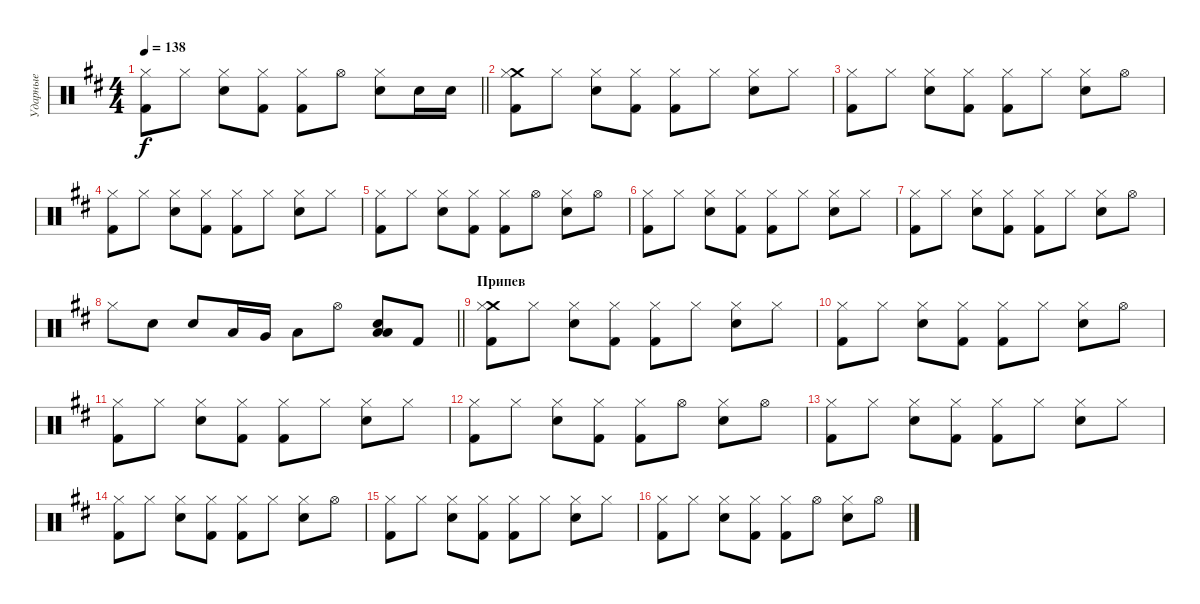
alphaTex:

\track ("Ударные" "Ударные") {instrument percussion}
\staff {score}
\articulation defaults
\ts (4 4)
\tempo 138
\clef neutral
\barLineRight lightlight
\ks bminor
("Kick (hit) 2" "Hi-Hat (closed)").8{dy f} "Hi-Hat (closed)".8 ("Electric Snare (hit)" "Hi-Hat (closed)").8 ("Kick (hit) 2" "Hi-Hat (closed)").8 ("Kick (hit) 2" "Hi-Hat (closed)").8 "Hi-Hat (open)".8 ("Electric Snare (hit)" "Hi-Hat (closed)").8 "Electric Snare (hit)".16 "Electric Snare (hit)".16 |
\section ("" "")
("Crash medium (hit)" "Kick (hit) 2" "Hi-Hat (closed)").8 "Hi-Hat (closed)".8 ("Electric Snare (hit)" "Hi-Hat (closed)").8 ("Kick (hit) 2" "Hi-Hat (closed)").8 ("Kick (hit) 2" "Hi-Hat (closed)").8 "Hi-Hat (closed)".8 ("Electric Snare (hit)" "Hi-Hat (closed)").8 "Hi-Hat (closed)".8 |
("Kick (hit) 2" "Hi-Hat (closed)").8 "Hi-Hat (closed)".8 ("Electric Snare (hit)" "Hi-Hat (closed)").8 ("Kick (hit) 2" "Hi-Hat (closed)").8 ("Kick (hit) 2" "Hi-Hat (closed)").8 "Hi-Hat (closed)".8 ("Electric Snare (hit)" "Hi-Hat (closed)").8 "Hi-Hat (open)".8 |
("Kick (hit) 2" "Hi-Hat (closed)").8 "Hi-Hat (closed)".8 ("Electric Snare (hit)" "Hi-Hat (closed)").8 ("Kick (hit) 2" "Hi-Hat (closed)").8 ("Kick (hit) 2" "Hi-Hat (closed)").8 "Hi-Hat (closed)".8 ("Electric Snare (hit)" "Hi-Hat (closed)").8 "Hi-Hat (closed)".8 |
("Kick (hit) 2" "Hi-Hat (closed)").8 "Hi-Hat (closed)".8 ("Electric Snare (hit)" "Hi-Hat (closed)").8 ("Kick (hit) 2" "Hi-Hat (closed)").8 ("Kick (hit) 2" "Hi-Hat (closed)").8 "Hi-Hat (open)".8 ("Electric Snare (hit)" "Hi-Hat (closed)").8 "Hi-Hat (open)".8 |
("Kick (hit) 2" "Hi-Hat (closed)").8 "Hi-Hat (closed)".8 ("Electric Snare (hit)" "Hi-Hat (closed)").8 ("Kick (hit) 2" "Hi-Hat (closed)").8 ("Kick (hit) 2" "Hi-Hat (closed)").8 "Hi-Hat (closed)".8 ("Electric Snare (hit)" "Hi-Hat (closed)").8 "Hi-Hat (closed)".8 |
("Kick (hit) 2" "Hi-Hat (closed)").8 "Hi-Hat (closed)".8 ("Electric Snare (hit)" "Hi-Hat (closed)").8 ("Kick (hit) 2" "Hi-Hat (closed)").8 ("Kick (hit) 2" "Hi-Hat (closed)").8 "Hi-Hat (closed)".8 ("Electric Snare (hit)" "Hi-Hat (closed)").8 "Hi-Hat (open)".8 |
\barLineRight lightlight "Hi-Hat (closed)".8 "Electric Snare (hit)".8 "Electric Snare (hit)".8 "Low Tom (hit)".16 "Very Low Tom (hit)".16 "Low Floor Tom (hit)".8 "Hi-Hat (open)".8
("Low Floor Tom (hit)" "Electric Snare (hit)" "Low Tom (hit)").8 "Kick (hit) 2".8 |
\section ("" "Припев")
("Crash medium (hit)" "Kick (hit) 2" "Hi-Hat (closed)").8 "Hi-Hat (closed)".8 ("Electric Snare (hit)" "Hi-Hat (closed)").8 ("Kick (hit) 2" "Hi-Hat (closed)").8 ("Kick (hit) 2" "Hi-Hat (closed)").8 "Hi-Hat (closed)".8 ("Electric Snare (hit)" "Hi-Hat (closed)").8 "Hi-Hat (closed)".8 |
("Kick (hit) 2" "Hi-Hat (closed)").8 "Hi-Hat (closed)".8 ("Electric Snare (hit)" "Hi-Hat (closed)").8 ("Kick (hit) 2" "Hi-Hat (closed)").8 ("Kick (hit) 2" "Hi-Hat (closed)").8 "Hi-Hat (closed)".8 ("Electric Snare (hit)" "Hi-Hat (closed)").8 "Hi-Hat (open)".8 |
("Kick (hit) 2" "Hi-Hat (closed)").8 "Hi-Hat (closed)".8 ("Electric Snare (hit)" "Hi-Hat (closed)").8 ("Kick (hit) 2" "Hi-Hat (closed)").8 ("Kick (hit) 2" "Hi-Hat (closed)").8 "Hi-Hat (closed)".8 ("Electric Snare (hit)" "Hi-Hat (closed)").8 "Hi-Hat (closed)".8 |
("Kick (hit) 2" "Hi-Hat (closed)").8 "Hi-Hat (closed)".8 ("Electric Snare (hit)" "Hi-Hat (closed)").8 ("Kick (hit) 2" "Hi-Hat (closed)").8 ("Kick (hit) 2" "Hi-Hat (closed)").8 "Hi-Hat (open)".8 ("Electric Snare (hit)" "Hi-Hat (closed)").8 "Hi-Hat (open)".8 |
("Kick (hit) 2" "Hi-Hat (closed)").8 "Hi-Hat (closed)".8 ("Electric Snare (hit)" "Hi-Hat (closed)").8 ("Kick (hit) 2" "Hi-Hat (closed)").8 ("Kick (hit) 2" "Hi-Hat (closed)").8 "Hi-Hat (closed)".8 ("Electric Snare (hit)" "Hi-Hat (closed)").8 "Hi-Hat (closed)".8 |
("Kick (hit) 2" "Hi-Hat (closed)").8 "Hi-Hat (closed)".8 ("Electric Snare (hit)" "Hi-Hat (closed)").8 ("Kick (hit) 2" "Hi-Hat (closed)").8 ("Kick (hit) 2" "Hi-Hat (closed)").8 "Hi-Hat (closed)".8 ("Electric Snare (hit)" "Hi-Hat (closed)").8 "Hi-Hat (open)".8 |
("Kick (hit) 2" "Hi-Hat (closed)").8 "Hi-Hat (closed)".8 ("Electric Snare (hit)" "Hi-Hat (closed)").8 ("Kick (hit) 2" "Hi-Hat (closed)").8 ("Kick (hit) 2" "Hi-Hat (closed)").8 "Hi-Hat (closed)".8 ("Electric Snare (hit)" "Hi-Hat (closed)").8 "Hi-Hat (closed)".8 |
("Kick (hit) 2" "Hi-Hat (closed)").8 "Hi-Hat (closed)".8 ("Electric Snare (hit)" "Hi-Hat (closed)").8 ("Kick (hit) 2" "Hi-Hat (closed)").8 ("Kick (hit) 2" "Hi-Hat (closed)").8 "Hi-Hat (open)".8 ("Electric Snare (hit)" "Hi-Hat (closed)").8 "Hi-Hat (open)".8
